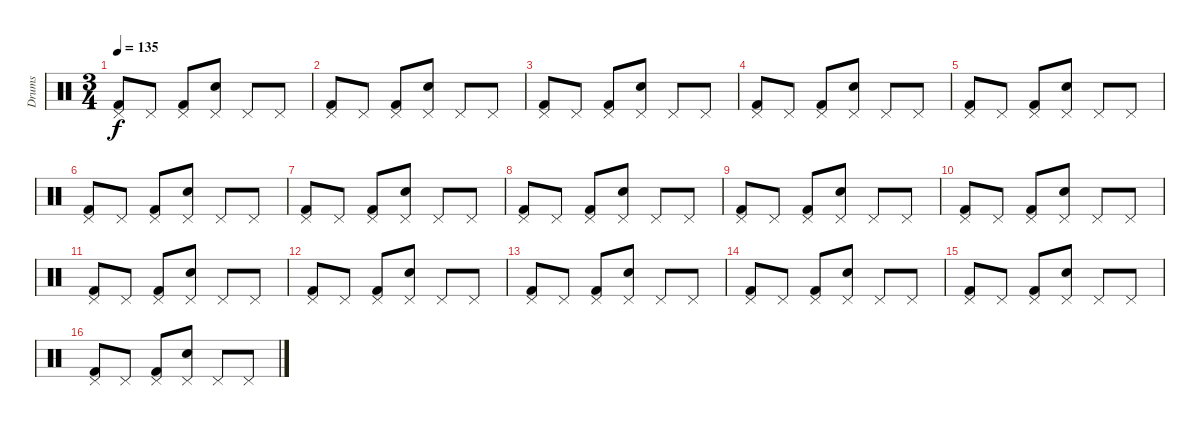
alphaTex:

\track ("Drums" "Drums") {instrument percussion}
\staff {score}
\articulation defaults
\ts (3 4)
\tempo 135
\clef neutral
\ks c
("Pedal Hi-Hat (hit)" "Kick (hit) 2").8{dy f} "Pedal Hi-Hat (hit)".8 ("Pedal Hi-Hat (hit)" "Kick (hit) 2").8 ("Pedal Hi-Hat (hit)" "Snare (hit) 2").8 "Pedal Hi-Hat (hit)".8 "Pedal Hi-Hat (hit)".8 |
("Pedal Hi-Hat (hit)" "Kick (hit) 2").8 "Pedal Hi-Hat (hit)".8 ("Pedal Hi-Hat (hit)" "Kick (hit) 2").8 ("Pedal Hi-Hat (hit)" "Snare (hit) 2").8 "Pedal Hi-Hat (hit)".8 "Pedal Hi-Hat (hit)".8 |
("Pedal Hi-Hat (hit)" "Kick (hit) 2").8 "Pedal Hi-Hat (hit)".8 ("Pedal Hi-Hat (hit)" "Kick (hit) 2").8 ("Pedal Hi-Hat (hit)" "Snare (hit) 2").8 "Pedal Hi-Hat (hit)".8 "Pedal Hi-Hat (hit)".8 |
("Pedal Hi-Hat (hit)" "Kick (hit) 2").8 "Pedal Hi-Hat (hit)".8 ("Pedal Hi-Hat (hit)" "Kick (hit) 2").8 ("Pedal Hi-Hat (hit)" "Snare (hit) 2").8 "Pedal Hi-Hat (hit)".8 "Pedal Hi-Hat (hit)".8 |
("Pedal Hi-Hat (hit)" "Kick (hit) 2").8 "Pedal Hi-Hat (hit)".8 ("Pedal Hi-Hat (hit)" "Kick (hit) 2").8 ("Pedal Hi-Hat (hit)" "Snare (hit) 2").8 "Pedal Hi-Hat (hit)".8 "Pedal Hi-Hat (hit)".8 |
("Pedal Hi-Hat (hit)" "Kick (hit) 2").8 "Pedal Hi-Hat (hit)".8 ("Pedal Hi-Hat (hit)" "Kick (hit) 2").8 ("Pedal Hi-Hat (hit)" "Snare (hit) 2").8 "Pedal Hi-Hat (hit)".8 "Pedal Hi-Hat (hit)".8 |
("Pedal Hi-Hat (hit)" "Kick (hit) 2").8 "Pedal Hi-Hat (hit)".8 ("Pedal Hi-Hat (hit)" "Kick (hit) 2").8 ("Pedal Hi-Hat (hit)" "Snare (hit) 2").8 "Pedal Hi-Hat (hit)".8 "Pedal Hi-Hat (hit)".8 |
("Pedal Hi-Hat (hit)" "Kick (hit) 2").8 "Pedal Hi-Hat (hit)".8 ("Pedal Hi-Hat (hit)" "Kick (hit) 2").8 ("Pedal Hi-Hat (hit)" "Snare (hit) 2").8 "Pedal Hi-Hat (hit)".8 "Pedal Hi-Hat (hit)".8 |
("Pedal Hi-Hat (hit)" "Kick (hit) 2").8 "Pedal Hi-Hat (hit)".8 ("Pedal Hi-Hat (hit)" "Kick (hit) 2").8 ("Pedal Hi-Hat (hit)" "Snare (hit) 2").8 "Pedal Hi-Hat (hit)".8 "Pedal Hi-Hat (hit)".8 |
("Pedal Hi-Hat (hit)" "Kick (hit) 2").8 "Pedal Hi-Hat (hit)".8 ("Pedal Hi-Hat (hit)" "Kick (hit) 2").8 ("Pedal Hi-Hat (hit)" "Snare (hit) 2").8 "Pedal Hi-Hat (hit)".8 "Pedal Hi-Hat (hit)".8 |
("Pedal Hi-Hat (hit)" "Kick (hit) 2").8 "Pedal Hi-Hat (hit)".8 ("Pedal Hi-Hat (hit)" "Kick (hit) 2").8 ("Pedal Hi-Hat (hit)" "Snare (hit) 2").8 "Pedal Hi-Hat (hit)".8 "Pedal Hi-Hat (hit)".8 |
("Pedal Hi-Hat (hit)" "Kick (hit) 2").8 "Pedal Hi-Hat (hit)".8 ("Pedal Hi-Hat (hit)" "Kick (hit) 2").8 ("Pedal Hi-Hat (hit)" "Snare (hit) 2").8 "Pedal Hi-Hat (hit)".8 "Pedal Hi-Hat (hit)".8 |
("Pedal Hi-Hat (hit)" "Kick (hit) 2").8 "Pedal Hi-Hat (hit)".8 ("Pedal Hi-Hat (hit)" "Kick (hit) 2").8 ("Pedal Hi-Hat (hit)" "Snare (hit) 2").8 "Pedal Hi-Hat (hit)".8 "Pedal Hi-Hat (hit)".8 |
("Pedal Hi-Hat (hit)" "Kick (hit) 2").8 "Pedal Hi-Hat (hit)".8 ("Pedal Hi-Hat (hit)" "Kick (hit) 2").8 ("Pedal Hi-Hat (hit)" "Snare (hit) 2").8 "Pedal Hi-Hat (hit)".8 "Pedal Hi-Hat (hit)".8 |
("Pedal Hi-Hat (hit)" "Kick (hit) 2").8 "Pedal Hi-Hat (hit)".8 ("Pedal Hi-Hat (hit)" "Kick (hit) 2").8 ("Pedal Hi-Hat (hit)" "Snare (hit) 2").8 "Pedal Hi-Hat (hit)".8 "Pedal Hi-Hat (hit)".8 |
("Pedal Hi-Hat (hit)" "Kick (hit) 2").8 "Pedal Hi-Hat (hit)".8 ("Pedal Hi-Hat (hit)" "Kick (hit) 2").8 ("Pedal Hi-Hat (hit)" "Snare (hit) 2").8 "Pedal Hi-Hat (hit)".8 "Pedal Hi-Hat (hit)".8
